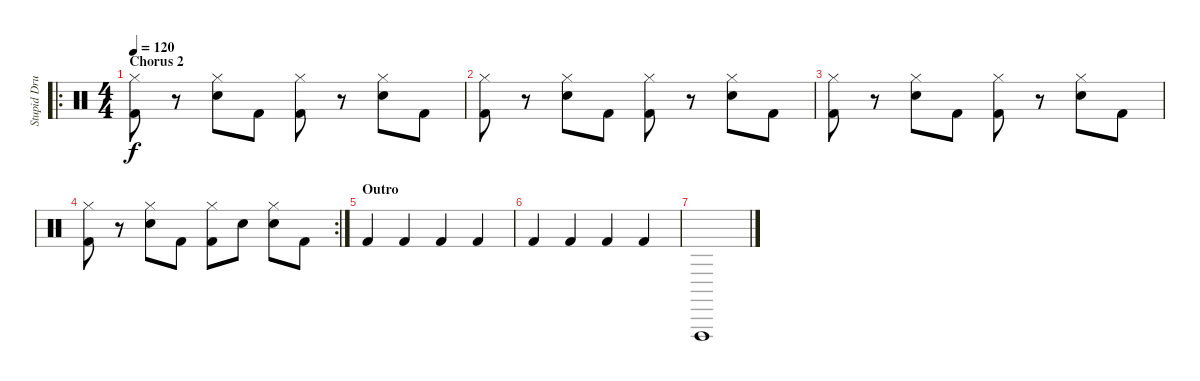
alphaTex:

\track ("Stupid Drummer" "Stupid Dru") {instrument percussion}
\staff {score}
\articulation defaults
\ro
\ts (4 4)
\section ("" "Chorus 2")
\tempo 120
\clef neutral
\ks c
("Hi-Hat (closed)" "Kick (hit) 2").8{dy f} r.8 ("Hi-Hat (closed)" "Electric Snare (hit)").8 "Kick (hit) 2".8 ("Hi-Hat (closed)" "Kick (hit) 2").8 r.8 ("Hi-Hat (closed)" "Electric Snare (hit)").8 "Kick (hit) 2".8 |
("Hi-Hat (closed)" "Kick (hit) 2").8 r.8 ("Hi-Hat (closed)" "Electric Snare (hit)").8 "Kick (hit) 2".8 ("Hi-Hat (closed)" "Kick (hit) 2").8 r.8 ("Hi-Hat (closed)" "Electric Snare (hit)").8 "Kick (hit) 2".8 |
("Hi-Hat (closed)" "Kick (hit) 2").8 r.8 ("Hi-Hat (closed)" "Electric Snare (hit)").8 "Kick (hit) 2".8 ("Hi-Hat (closed)" "Kick (hit) 2").8 r.8 ("Hi-Hat (closed)" "Electric Snare (hit)").8 "Kick (hit) 2".8 |
\rc 2
("Hi-Hat (closed)" "Kick (hit) 2").8 r.8 ("Hi-Hat (closed)" "Electric Snare (hit)").8 "Kick (hit) 2".8 ("Hi-Hat (closed)" "Kick (hit) 2").8 "Electric Snare (hit)".8 ("Hi-Hat (closed)" "Electric Snare (hit)").8 "Kick (hit) 2".8 |
\section ("" "Outro")
"Kick (hit) 2".4 "Kick (hit) 2".4 "Kick (hit) 2".4 "Kick (hit) 2".4 |
"Kick (hit) 2".4 "Kick (hit) 2".4 "Kick (hit) 2".4 "Kick (hit) 2".4 |
"Vibraslap (hit)".1
